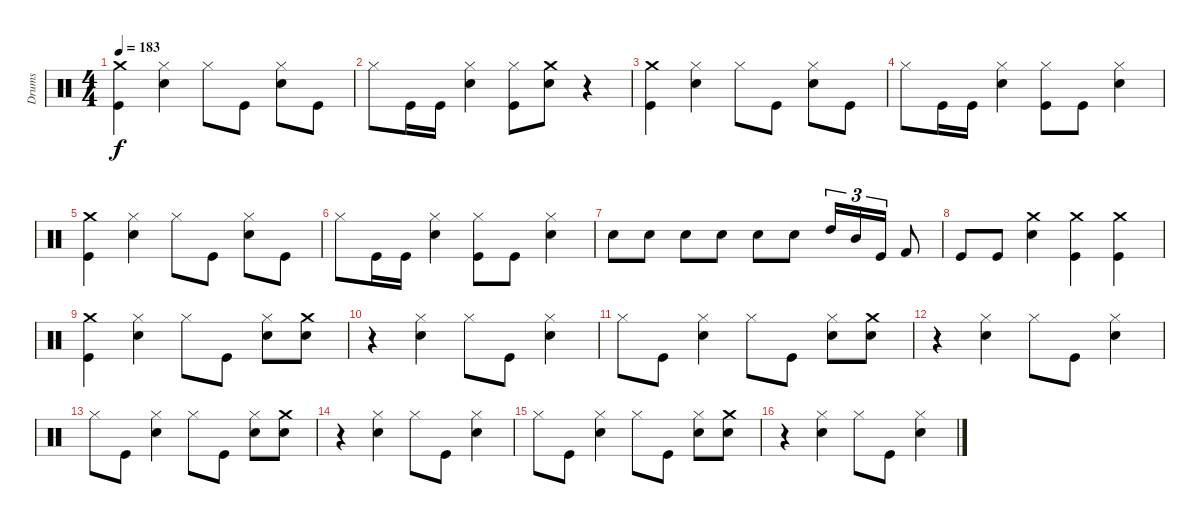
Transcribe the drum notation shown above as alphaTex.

\track ("Drums" "Drums") {instrument percussion}
\staff {score}
\articulation defaults
\ts (4 4)
\tempo 183
\clef neutral
\ks c
("Kick (hit)" "Crash medium (hit)").4{dy f} ("Hi-Hat (closed)" "Snare (hit) 2").4 "Hi-Hat (closed)".8 "Kick (hit)".8 ("Snare (hit) 2" "Hi-Hat (closed)").8 "Kick (hit)".8 |
"Hi-Hat (closed)".8 "Kick (hit)".16 "Kick (hit)".16 ("Snare (hit) 2" "Hi-Hat (closed)").4 ("Kick (hit)" "Hi-Hat (closed)").8 ("Snare (hit) 2" "Crash medium (hit)").8 r.4 |
("Kick (hit)" "Crash medium (hit)").4 ("Hi-Hat (closed)" "Snare (hit) 2").4 "Hi-Hat (closed)".8 "Kick (hit)".8 ("Snare (hit) 2" "Hi-Hat (closed)").8 "Kick (hit)".8 |
"Hi-Hat (closed)".8 "Kick (hit)".16 "Kick (hit)".16 ("Snare (hit) 2" "Hi-Hat (closed)").4 ("Hi-Hat (closed)" "Kick (hit)").8 "Kick (hit)".8 ("Snare (hit) 2" "Hi-Hat (closed)").4 |
("Kick (hit)" "Crash medium (hit)").4 ("Hi-Hat (closed)" "Snare (hit) 2").4 "Hi-Hat (closed)".8 "Kick (hit)".8 ("Snare (hit) 2" "Hi-Hat (closed)").8 "Kick (hit)".8 |
"Hi-Hat (closed)".8 "Kick (hit)".16 "Kick (hit)".16 ("Snare (hit) 2" "Hi-Hat (closed)").4 ("Hi-Hat (closed)" "Kick (hit)").8 "Kick (hit)".8 ("Snare (hit) 2" "Hi-Hat (closed)").4 |
"Snare (hit) 2".8 "Snare (hit) 2".8 "Snare (hit) 2".8 "Snare (hit) 2".8 "Snare (hit) 2".8 "Snare (hit) 2".8 "High Tom (hit)".16{tu (3 2)} "Mid Tom (hit)".16{tu (3 2)} "Kick (hit)".16{tu (3 2)} "Kick (hit) 2".8 |
"Kick (hit)".8 "Kick (hit)".8 ("Crash medium (hit)" "Snare (hit) 2").4 ("Crash medium (hit)" "Kick (hit)").4 ("Crash medium (hit)" "Kick (hit)").4 |
("Kick (hit)" "Crash medium (hit)").4 ("Hi-Hat (closed)" "Snare (hit) 2").4 "Hi-Hat (closed)".8 "Kick (hit)".8 ("Hi-Hat (closed)" "Snare (hit) 2").8 ("Crash medium (hit)" "Snare (hit) 2").8 |
r.4 ("Snare (hit) 2" "Hi-Hat (closed)").4 "Hi-Hat (closed)".8 "Kick (hit)".8 ("Snare (hit) 2" "Hi-Hat (closed)").4 |
"Hi-Hat (closed)".8 "Kick (hit)".8 ("Snare (hit) 2" "Hi-Hat (closed)").4 "Hi-Hat (closed)".8 "Kick (hit)".8 ("Hi-Hat (closed)" "Snare (hit) 2").8 ("Crash medium (hit)" "Snare (hit) 2").8 |
r.4 ("Snare (hit) 2" "Hi-Hat (closed)").4 "Hi-Hat (closed)".8 "Kick (hit)".8 ("Snare (hit) 2" "Hi-Hat (closed)").4 |
"Hi-Hat (closed)".8 "Kick (hit)".8 ("Snare (hit) 2" "Hi-Hat (closed)").4 "Hi-Hat (closed)".8 "Kick (hit)".8 ("Hi-Hat (closed)" "Snare (hit) 2").8 ("Crash medium (hit)" "Snare (hit) 2").8 |
r.4 ("Snare (hit) 2" "Hi-Hat (closed)").4 "Hi-Hat (closed)".8 "Kick (hit)".8 ("Snare (hit) 2" "Hi-Hat (closed)").4 |
"Hi-Hat (closed)".8 "Kick (hit)".8 ("Snare (hit) 2" "Hi-Hat (closed)").4 "Hi-Hat (closed)".8 "Kick (hit)".8 ("Hi-Hat (closed)" "Snare (hit) 2").8 ("Crash medium (hit)" "Snare (hit) 2").8 |
r.4 ("Snare (hit) 2" "Hi-Hat (closed)").4 "Hi-Hat (closed)".8 "Kick (hit)".8 ("Snare (hit) 2" "Hi-Hat (closed)").4
